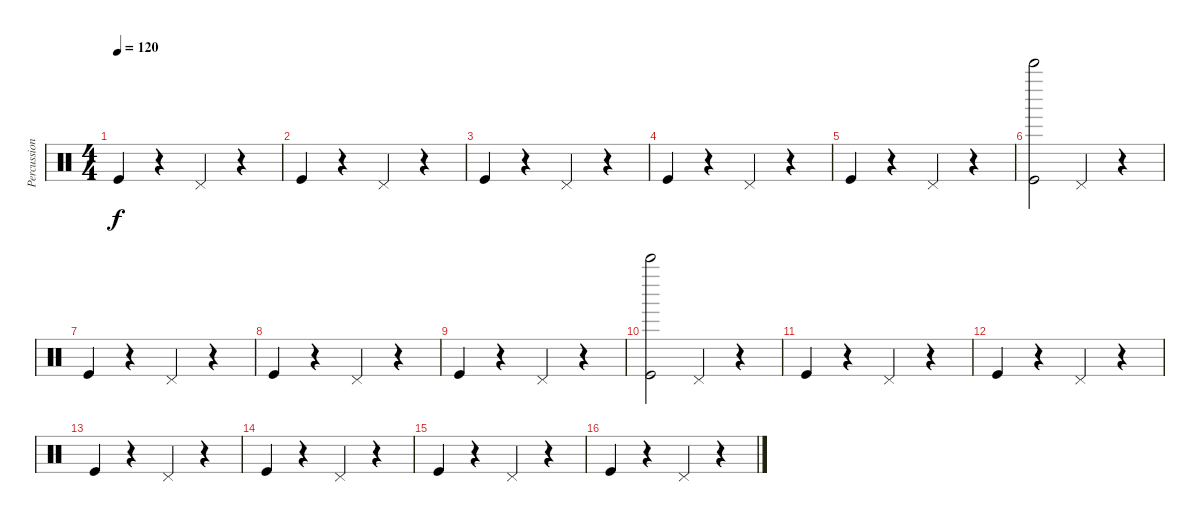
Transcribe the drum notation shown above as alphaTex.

\track ("Percussion" "Percussion") {instrument percussion}
\staff {score}
\articulation defaults
\ts (4 4)
\tempo 120
\clef neutral
\ks c "Kick (hit)".4{dy f}
r.4 "Pedal Hi-Hat (hit)".4 r.4 |
"Kick (hit)".4 r.4 "Pedal Hi-Hat (hit)".4 r.4 |
"Kick (hit)".4 r.4 "Pedal Hi-Hat (hit)".4 r.4 |
"Kick (hit)".4 r.4 "Pedal Hi-Hat (hit)".4 r.4 |
"Kick (hit)".4 r.4 "Pedal Hi-Hat (hit)".4 r.4 |
("Bell Tree (hit)" "Kick (hit)").2 "Pedal Hi-Hat (hit)".4 r.4 |
"Kick (hit)".4 r.4 "Pedal Hi-Hat (hit)".4 r.4 |
"Kick (hit)".4 r.4 "Pedal Hi-Hat (hit)".4 r.4 |
"Kick (hit)".4 r.4 "Pedal Hi-Hat (hit)".4 r.4 |
("Bell Tree (hit)" "Kick (hit)").2 "Pedal Hi-Hat (hit)".4 r.4 |
"Kick (hit)".4 r.4 "Pedal Hi-Hat (hit)".4 r.4 |
"Kick (hit)".4 r.4 "Pedal Hi-Hat (hit)".4 r.4 |
"Kick (hit)".4 r.4 "Pedal Hi-Hat (hit)".4 r.4 |
"Kick (hit)".4 r.4 "Pedal Hi-Hat (hit)".4 r.4 |
"Kick (hit)".4 r.4 "Pedal Hi-Hat (hit)".4 r.4 |
"Kick (hit)".4 r.4 "Pedal Hi-Hat (hit)".4 r.4
